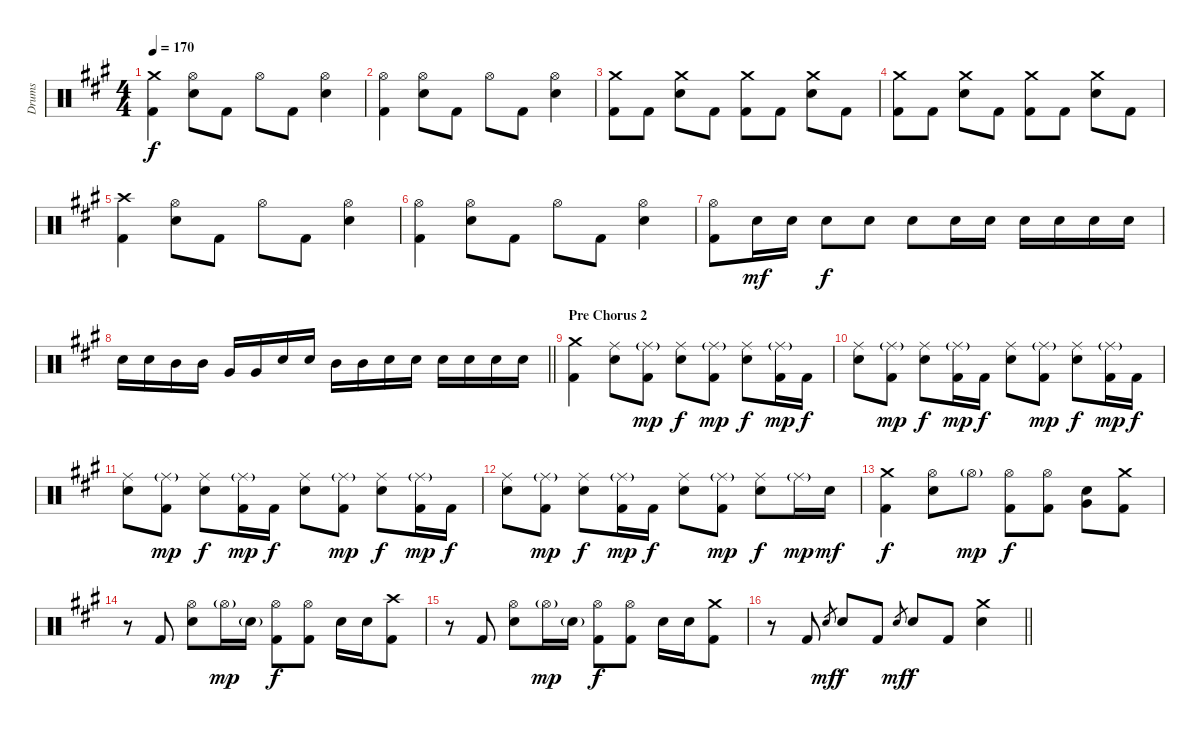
\track ("Drums" "Drums") {instrument percussion}
\staff {score}
\articulation defaults
\ts (4 4)
\tempo 170
\clef neutral
\ks a
("Crash medium (hit)" "Kick (hit) 2").4{dy f} ("Hi-Hat (open)" "Electric Snare (hit)").8 "Kick (hit) 2".8 "Hi-Hat (open)".8 "Kick (hit) 2".8 ("Hi-Hat (open)" "Electric Snare (hit)").4 |
("Hi-Hat (open)" "Kick (hit) 2").4 ("Hi-Hat (open)" "Electric Snare (hit)").8 "Kick (hit) 2".8 "Hi-Hat (open)".8 "Kick (hit) 2".8 ("Hi-Hat (open)" "Electric Snare (hit)").4 |
("Crash medium (hit)" "Kick (hit) 2").8 "Kick (hit) 2".8 ("Crash medium (hit)" "Electric Snare (hit)").8 "Kick (hit) 2".8 ("Crash medium (hit)" "Kick (hit) 2").8 "Kick (hit) 2".8 ("Crash medium (hit)" "Electric Snare (hit)").8 "Kick (hit) 2".8 |
("Crash medium (hit)" "Kick (hit) 2").8 "Kick (hit) 2".8 ("Crash medium (hit)" "Electric Snare (hit)").8 "Kick (hit) 2".8 ("Crash medium (hit)" "Kick (hit) 2").8 "Kick (hit) 2".8 ("Crash medium (hit)" "Electric Snare (hit)").8 "Kick (hit) 2".8 |
("Crash high (hit)" "Kick (hit) 2").4 ("Hi-Hat (open)" "Electric Snare (hit)").8 "Kick (hit) 2".8 "Hi-Hat (open)".8 "Kick (hit) 2".8 ("Hi-Hat (open)" "Electric Snare (hit)").4 |
("Hi-Hat (open)" "Kick (hit) 2").4 ("Hi-Hat (open)" "Electric Snare (hit)").8 "Kick (hit) 2".8 "Hi-Hat (open)".8 "Kick (hit) 2".8 ("Hi-Hat (open)" "Electric Snare (hit)").4 |
("Hi-Hat (open)" "Kick (hit) 2").8 "Electric Snare (hit)".16{dy mf} "Electric Snare (hit)".16 "Electric Snare (hit)".8{dy f} "Electric Snare (hit)".8 "Electric Snare (hit)".8 "Electric Snare (hit)".16 "Electric Snare (hit)".16 "Electric Snare (hit)".16 "Electric Snare (hit)".16 "Electric Snare (hit)".16 "Electric Snare (hit)".16 |
\barLineRight lightlight "Electric Snare (hit)".16 "Electric Snare (hit)".16 "Mid Tom (hit)".16 "Mid Tom (hit)".16 "Very Low Tom (hit)".16 "Very Low Tom (hit)".16 "Electric Snare (hit)".16 "Electric Snare (hit)".16 "Mid Tom (hit)".16 "Mid Tom (hit)".16 "Electric Snare (hit)".16 "Electric Snare (hit)".16 "Electric Snare (hit)".16 "Electric Snare (hit)".16 "Electric Snare (hit)".16 "Electric Snare (hit)".16
|
\section ("" "Pre Chorus 2")
("Crash medium (hit)" "Kick (hit) 2").4 ("Ride (middle)" "Electric Snare (hit)").8 ("Ride (middle)"{g} "Kick (hit) 2").8{dy mp} ("Ride (middle)" "Electric Snare (hit)").8{dy f} ("Ride (middle)"{g} "Kick (hit) 2").8{dy mp} ("Ride (middle)" "Electric Snare (hit)").8{dy f} ("Ride (middle)"{g} "Kick (hit) 2").16{dy mp} "Kick (hit) 2".16{dy f} |
("Ride (middle)" "Electric Snare (hit)").8 ("Ride (middle)"{g} "Kick (hit) 2").8{dy mp} ("Ride (middle)" "Electric Snare (hit)").8{dy f} ("Ride (middle)"{g} "Kick (hit) 2").16{dy mp} "Kick (hit) 2".16{dy f} ("Ride (middle)" "Electric Snare (hit)").8 ("Ride (middle)"{g} "Kick (hit) 2").8{dy mp} ("Ride (middle)" "Electric Snare (hit)").8{dy f} ("Ride (middle)"{g} "Kick (hit) 2").16{dy mp} "Kick (hit) 2".16{dy f} |
("Ride (middle)" "Electric Snare (hit)").8 ("Ride (middle)"{g} "Kick (hit) 2").8{dy mp} ("Ride (middle)" "Electric Snare (hit)").8{dy f} ("Ride (middle)"{g} "Kick (hit) 2").16{dy mp} "Kick (hit) 2".16{dy f} ("Ride (middle)" "Electric Snare (hit)").8 ("Ride (middle)"{g} "Kick (hit) 2").8{dy mp} ("Ride (middle)" "Electric Snare (hit)").8{dy f} ("Ride (middle)"{g} "Kick (hit) 2").16{dy mp} "Kick (hit) 2".16{dy f} |
("Ride (middle)" "Electric Snare (hit)").8 ("Ride (middle)"{g} "Kick (hit) 2").8{dy mp} ("Ride (middle)" "Electric Snare (hit)").8{dy f} ("Ride (middle)"{g} "Kick (hit) 2").16{dy mp} "Kick (hit) 2".16{dy f} ("Ride (middle)" "Electric Snare (hit)").8 ("Ride (middle)"{g} "Kick (hit) 2").8{dy mp} ("Ride (middle)" "Electric Snare (hit)").8{dy f} "Ride (middle)"{g}.16{dy mp} "Electric Snare (hit)".16{dy mf} |
("Crash medium (hit)" "Kick (hit) 2").4{dy f} ("Hi-Hat (open)" "Electric Snare (hit)").8 "Hi-Hat (open)"{g}.8{dy mp} ("Hi-Hat (open)" "Kick (hit) 2").8{dy f} ("Hi-Hat (open)" "Kick (hit) 2").8 ("Electric Snare (hit)" "Very Low Tom (hit)").8 ("Crash medium (hit)" "Kick (hit) 2").8 |
r.8 "Kick (hit) 2".8 ("Hi-Hat (open)" "Electric Snare (hit)").8 "Hi-Hat (open)"{g}.16{dy mp} "Electric Snare (hit)"{g}.16 ("Hi-Hat (open)" "Kick (hit) 2").8{dy f} ("Hi-Hat (open)" "Kick (hit) 2").8 "Electric Snare (hit)".16 "Electric Snare (hit)".16 ("Crash high (hit)" "Kick (hit) 2").8 |
r.8 "Kick (hit) 2".8 ("Hi-Hat (open)" "Electric Snare (hit)").8 "Hi-Hat (open)"{g}.16{dy mp} "Electric Snare (hit)"{g}.16 ("Hi-Hat (open)" "Kick (hit) 2").8{dy f} ("Hi-Hat (open)" "Kick (hit) 2").8 "Electric Snare (hit)".16 "Electric Snare (hit)".16 ("Crash medium (hit)" "Kick (hit) 2").8 |
\barLineRight lightlight
r.8 "Kick (hit) 2".8 "Electric Snare (hit)".8{gr dy mf} "Electric Snare (hit)".8{dy f} "Kick (hit) 2".8 "Electric Snare (hit)".8{gr dy mf} "Electric Snare (hit)".8{dy f} "Kick (hit) 2".8 ("Crash medium (hit)" "Electric Snare (hit)").4
